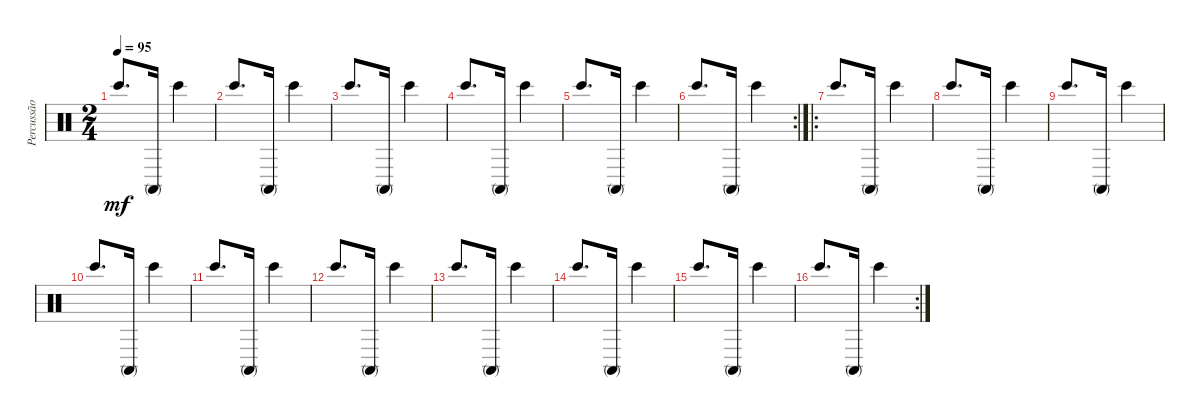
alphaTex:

\track ("Percussão" "Percussão") {instrument percussion}
\staff {score}
\articulation defaults
\ts (2 4)
\tempo 95
\clef neutral
\ks c "Bongo High (hit)".8{d dy mf} "Conga high (mute)".16 "Bongo High (hit)".4
|
"Bongo High (hit)".8{d} "Conga high (mute)".16 "Bongo High (hit)".4 |
"Bongo High (hit)".8{d} "Conga high (mute)".16 "Bongo High (hit)".4 |
"Bongo High (hit)".8{d} "Conga high (mute)".16 "Bongo High (hit)".4 |
"Bongo High (hit)".8{d} "Conga high (mute)".16 "Bongo High (hit)".4 |
\rc 2 "Bongo High (hit)".8{d} "Conga high (mute)".16 "Bongo High (hit)".4
|
\ro "Bongo High (hit)".8{d} "Conga high (mute)".16 "Bongo High (hit)".4
|
"Bongo High (hit)".8{d} "Conga high (mute)".16 "Bongo High (hit)".4 |
"Bongo High (hit)".8{d} "Conga high (mute)".16 "Bongo High (hit)".4 |
"Bongo High (hit)".8{d} "Conga high (mute)".16 "Bongo High (hit)".4 |
"Bongo High (hit)".8{d} "Conga high (mute)".16 "Bongo High (hit)".4 |
"Bongo High (hit)".8{d} "Conga high (mute)".16 "Bongo High (hit)".4 |
"Bongo High (hit)".8{d} "Conga high (mute)".16 "Bongo High (hit)".4 |
"Bongo High (hit)".8{d} "Conga high (mute)".16 "Bongo High (hit)".4 |
"Bongo High (hit)".8{d} "Conga high (mute)".16 "Bongo High (hit)".4 |
\rc 2 "Bongo High (hit)".8{d} "Conga high (mute)".16 "Bongo High (hit)".4
